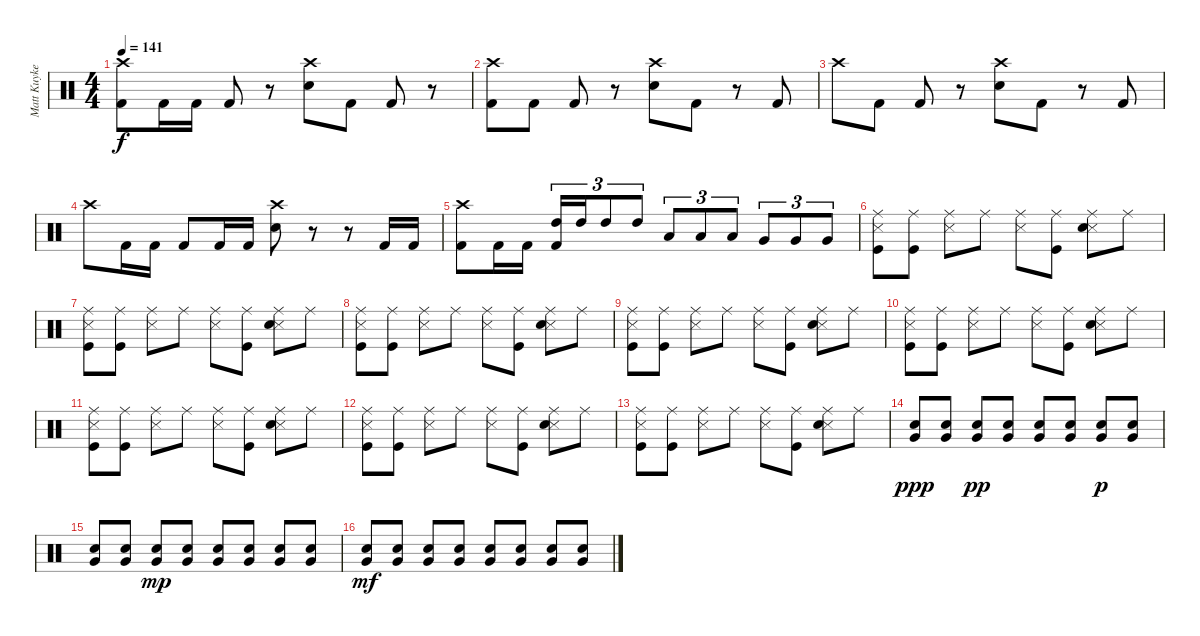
\track ("Matt Kuykendall" "Matt Kuyke") {instrument percussion}
\staff {score}
\articulation defaults
\ts (4 4)
\tempo 141
\clef neutral
\ks c
("Crash high (hit)" "Kick (hit) 2").8{dy f} "Kick (hit) 2".16 "Kick (hit) 2".16 "Kick (hit) 2".8 r.8 ("Crash high (hit)" "Electric Snare (hit)").8 "Kick (hit) 2".8 "Kick (hit) 2".8 r.8 |
("Crash high (hit)" "Kick (hit) 2").8 "Kick (hit) 2".8 "Kick (hit) 2".8 r.8 ("Crash high (hit)" "Electric Snare (hit)").8 "Kick (hit) 2".8 r.8 "Kick (hit) 2".8 |
"Crash high (hit)".8 "Kick (hit) 2".8 "Kick (hit) 2".8 r.8 ("Crash high (hit)" "Electric Snare (hit)").8 "Kick (hit) 2".8 r.8 "Kick (hit) 2".8 |
"Crash high (hit)".8 "Kick (hit) 2".16 "Kick (hit) 2".16 "Kick (hit) 2".8 "Kick (hit) 2".16 "Kick (hit) 2".16 ("Crash high (hit)" "Electric Snare (hit)").8 r.8 r.8 "Kick (hit) 2".16 "Kick (hit) 2".16 |
("Crash high (hit)" "Kick (hit) 2").8 "Kick (hit) 2".16 "Kick (hit) 2".16 ("High Tom (hit)" "Kick (hit) 2").16{tu (3 2)} "High Tom (hit)".16{tu (3 2)} "High Tom (hit)".8{tu (3 2)} "High Tom (hit)".8{tu (3 2)} "Low Tom (hit)".8{tu (3 2)} "Low Tom (hit)".8{tu (3 2)} "Low Tom (hit)".8{tu (3 2)} "Very Low Tom (hit)".8{tu (3 2)} "Very Low Tom (hit)".8{tu (3 2)} "Very Low Tom (hit)".8{tu (3 2)} |
("Snare (side stick) 3" "Ride (middle)" "Kick (hit)").8 ("Ride (middle)" "Kick (hit)").8 ("Snare (side stick) 3" "Ride (middle)").8 "Ride (middle)".8 ("Snare (side stick) 3" "Ride (middle)").8 ("Ride (middle)" "Kick (hit)").8 ("Snare (side stick) 3" "Ride (middle)" "Snare (hit) 2").8 "Ride (middle)".8 |
("Snare (side stick) 3" "Ride (middle)" "Kick (hit)").8 ("Ride (middle)" "Kick (hit)").8 ("Snare (side stick) 3" "Ride (middle)").8 "Ride (middle)".8 ("Snare (side stick) 3" "Ride (middle)").8 ("Ride (middle)" "Kick (hit)").8 ("Snare (side stick) 3" "Ride (middle)" "Snare (hit) 2").8 "Ride (middle)".8 |
("Snare (side stick) 3" "Ride (middle)" "Kick (hit)").8 ("Ride (middle)" "Kick (hit)").8 ("Snare (side stick) 3" "Ride (middle)").8 "Ride (middle)".8 ("Snare (side stick) 3" "Ride (middle)").8 ("Ride (middle)" "Kick (hit)").8 ("Snare (side stick) 3" "Ride (middle)" "Snare (hit) 2").8 "Ride (middle)".8 |
("Snare (side stick) 3" "Ride (middle)" "Kick (hit)").8 ("Ride (middle)" "Kick (hit)").8 ("Snare (side stick) 3" "Ride (middle)").8 "Ride (middle)".8 ("Snare (side stick) 3" "Ride (middle)").8 ("Ride (middle)" "Kick (hit)").8 ("Snare (side stick) 3" "Ride (middle)" "Snare (hit) 2").8 "Ride (middle)".8 |
("Snare (side stick) 3" "Ride (middle)" "Kick (hit)").8 ("Ride (middle)" "Kick (hit)").8 ("Snare (side stick) 3" "Ride (middle)").8 "Ride (middle)".8 ("Snare (side stick) 3" "Ride (middle)").8 ("Ride (middle)" "Kick (hit)").8 ("Snare (side stick) 3" "Ride (middle)" "Snare (hit) 2").8 "Ride (middle)".8 |
("Snare (side stick) 3" "Ride (middle)" "Kick (hit)").8 ("Ride (middle)" "Kick (hit)").8 ("Snare (side stick) 3" "Ride (middle)").8 "Ride (middle)".8 ("Snare (side stick) 3" "Ride (middle)").8 ("Ride (middle)" "Kick (hit)").8 ("Snare (side stick) 3" "Ride (middle)" "Snare (hit) 2").8 "Ride (middle)".8 |
("Snare (side stick) 3" "Ride (middle)" "Kick (hit)").8 ("Ride (middle)" "Kick (hit)").8 ("Snare (side stick) 3" "Ride (middle)").8 "Ride (middle)".8 ("Snare (side stick) 3" "Ride (middle)").8 ("Ride (middle)" "Kick (hit)").8 ("Snare (side stick) 3" "Ride (middle)" "Snare (hit) 2").8 "Ride (middle)".8 |
("Snare (side stick) 3" "Ride (middle)" "Kick (hit)").8 ("Ride (middle)" "Kick (hit)").8 ("Snare (side stick) 3" "Ride (middle)").8 "Ride (middle)".8 ("Snare (side stick) 3" "Ride (middle)").8 ("Ride (middle)" "Kick (hit)").8 ("Snare (side stick) 3" "Ride (middle)" "Snare (hit) 2").8 "Ride (middle)".8 |
("Snare (hit) 2" "Very Low Tom (hit)").8{dy ppp} ("Snare (hit) 2" "Very Low Tom (hit)").8 ("Snare (hit) 2" "Very Low Tom (hit)").8{dy pp} ("Snare (hit) 2" "Very Low Tom (hit)").8 ("Snare (hit) 2" "Very Low Tom (hit)").8 ("Snare (hit) 2" "Very Low Tom (hit)").8 ("Snare (hit) 2" "Very Low Tom (hit)").8{dy p} ("Snare (hit) 2" "Very Low Tom (hit)").8 |
("Snare (hit) 2" "Very Low Tom (hit)").8 ("Snare (hit) 2" "Very Low Tom (hit)").8 ("Snare (hit) 2" "Very Low Tom (hit)").8{dy mp} ("Snare (hit) 2" "Very Low Tom (hit)").8 ("Snare (hit) 2" "Very Low Tom (hit)").8 ("Snare (hit) 2" "Very Low Tom (hit)").8 ("Snare (hit) 2" "Very Low Tom (hit)").8 ("Snare (hit) 2" "Very Low Tom (hit)").8 |
("Snare (hit) 2" "Very Low Tom (hit)").8{dy mf} ("Snare (hit) 2" "Very Low Tom (hit)").8 ("Snare (hit) 2" "Very Low Tom (hit)").8 ("Snare (hit) 2" "Very Low Tom (hit)").8 ("Snare (hit) 2" "Very Low Tom (hit)").8 ("Snare (hit) 2" "Very Low Tom (hit)").8 ("Snare (hit) 2" "Very Low Tom (hit)").8 ("Snare (hit) 2" "Very Low Tom (hit)").8
